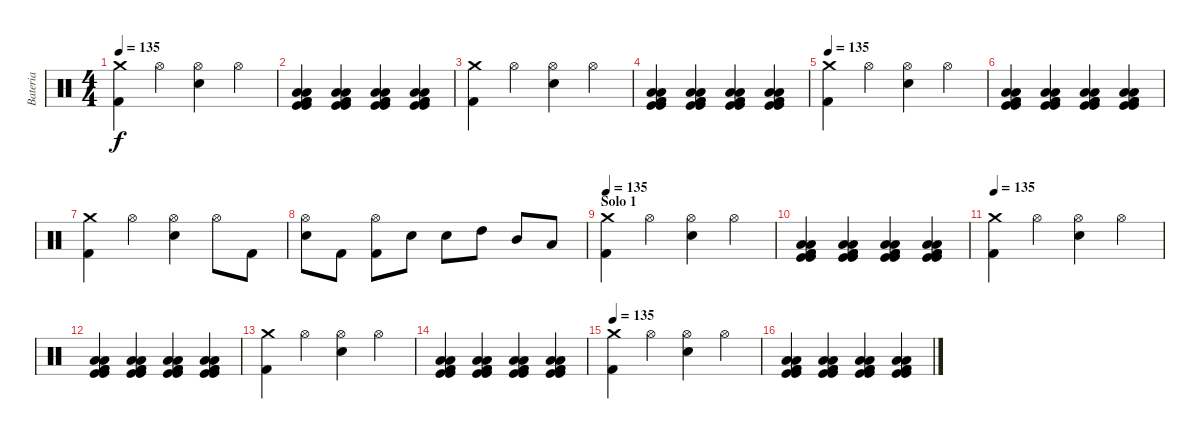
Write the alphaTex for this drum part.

\track ("Bateria" "Bateria") {instrument percussion}
\staff {score}
\articulation defaults
\ts (4 4)
\tempo 135
\clef neutral
\ks c
("Kick (hit) 2" "Crash medium (hit)").4{dy f} "Hi-Hat (open)".4 ("Hi-Hat (open)" "Snare (hit) 2").4 "Hi-Hat (open)".4 |
("Low Floor Tom (hit)" "Kick (hit)" "Kick (hit)" "Kick (hit) 2" "Kick (hit) 2" "Low Floor Tom (hit)").4 ("Low Floor Tom (hit)" "Kick (hit)" "Kick (hit)" "Kick (hit) 2" "Kick (hit) 2" "Low Floor Tom (hit)").4 ("Low Floor Tom (hit)" "Kick (hit)" "Kick (hit)" "Kick (hit) 2" "Kick (hit) 2" "Low Floor Tom (hit)").4 ("Low Floor Tom (hit)" "Kick (hit)" "Kick (hit)" "Kick (hit) 2" "Kick (hit) 2" "Low Floor Tom (hit)").4 |
("Kick (hit) 2" "Crash medium (hit)").4 "Hi-Hat (open)".4 ("Hi-Hat (open)" "Snare (hit) 2").4 "Hi-Hat (open)".4 |
("Low Floor Tom (hit)" "Kick (hit)" "Kick (hit)" "Kick (hit) 2" "Kick (hit) 2" "Low Floor Tom (hit)").4 ("Low Floor Tom (hit)" "Kick (hit)" "Kick (hit)" "Kick (hit) 2" "Kick (hit) 2" "Low Floor Tom (hit)").4 ("Low Floor Tom (hit)" "Kick (hit)" "Kick (hit)" "Kick (hit) 2" "Kick (hit) 2" "Low Floor Tom (hit)").4 ("Low Floor Tom (hit)" "Kick (hit)" "Kick (hit)" "Kick (hit) 2" "Kick (hit) 2" "Low Floor Tom (hit)").4 |
\tempo 135
("Kick (hit) 2" "Crash medium (hit)").4 "Hi-Hat (open)".4 ("Hi-Hat (open)" "Snare (hit) 2").4 "Hi-Hat (open)".4 |
("Low Floor Tom (hit)" "Kick (hit)" "Kick (hit)" "Kick (hit) 2" "Kick (hit) 2" "Low Floor Tom (hit)").4 ("Low Floor Tom (hit)" "Kick (hit)" "Kick (hit)" "Kick (hit) 2" "Kick (hit) 2" "Low Floor Tom (hit)").4 ("Low Floor Tom (hit)" "Kick (hit)" "Kick (hit)" "Kick (hit) 2" "Kick (hit) 2" "Low Floor Tom (hit)").4 ("Low Floor Tom (hit)" "Kick (hit)" "Kick (hit)" "Kick (hit) 2" "Kick (hit) 2" "Low Floor Tom (hit)").4 |
("Kick (hit) 2" "Crash medium (hit)").4 "Hi-Hat (open)".4 ("Hi-Hat (open)" "Snare (hit) 2").4 "Hi-Hat (open)".8 "Kick (hit) 2".8 |
("Hi-Hat (open)" "Snare (hit) 2").8 "Kick (hit) 2".8 ("Kick (hit) 2" "Hi-Hat (open)").8 "Snare (hit) 2".8 "Snare (hit) 2".8 "High Tom (hit)".8 "Mid Tom (hit)".8 "Low Tom (hit)".8 |
\section ("" "Solo 1")
\tempo 135
("Kick (hit) 2" "Crash medium (hit)").4 "Hi-Hat (open)".4 ("Hi-Hat (open)" "Snare (hit) 2").4 "Hi-Hat (open)".4 |
("Low Floor Tom (hit)" "Kick (hit)" "Kick (hit)" "Kick (hit) 2" "Kick (hit) 2" "Low Floor Tom (hit)").4 ("Low Floor Tom (hit)" "Kick (hit)" "Kick (hit)" "Kick (hit) 2" "Kick (hit) 2" "Low Floor Tom (hit)").4 ("Low Floor Tom (hit)" "Kick (hit)" "Kick (hit)" "Kick (hit) 2" "Kick (hit) 2" "Low Floor Tom (hit)").4 ("Low Floor Tom (hit)" "Kick (hit)" "Kick (hit)" "Kick (hit) 2" "Kick (hit) 2" "Low Floor Tom (hit)").4 |
\tempo 135
("Kick (hit) 2" "Crash medium (hit)").4 "Hi-Hat (open)".4 ("Hi-Hat (open)" "Snare (hit) 2").4 "Hi-Hat (open)".4 |
("Low Floor Tom (hit)" "Kick (hit)" "Kick (hit)" "Kick (hit) 2" "Kick (hit) 2" "Low Floor Tom (hit)").4 ("Low Floor Tom (hit)" "Kick (hit)" "Kick (hit)" "Kick (hit) 2" "Kick (hit) 2" "Low Floor Tom (hit)").4 ("Low Floor Tom (hit)" "Kick (hit)" "Kick (hit)" "Kick (hit) 2" "Kick (hit) 2" "Low Floor Tom (hit)").4 ("Low Floor Tom (hit)" "Kick (hit)" "Kick (hit)" "Kick (hit) 2" "Kick (hit) 2" "Low Floor Tom (hit)").4 |
("Kick (hit) 2" "Crash medium (hit)").4 "Hi-Hat (open)".4 ("Hi-Hat (open)" "Snare (hit) 2").4 "Hi-Hat (open)".4 |
("Low Floor Tom (hit)" "Kick (hit)" "Kick (hit)" "Kick (hit) 2" "Kick (hit) 2" "Low Floor Tom (hit)").4 ("Low Floor Tom (hit)" "Kick (hit)" "Kick (hit)" "Kick (hit) 2" "Kick (hit) 2" "Low Floor Tom (hit)").4 ("Low Floor Tom (hit)" "Kick (hit)" "Kick (hit)" "Kick (hit) 2" "Kick (hit) 2" "Low Floor Tom (hit)").4 ("Low Floor Tom (hit)" "Kick (hit)" "Kick (hit)" "Kick (hit) 2" "Kick (hit) 2" "Low Floor Tom (hit)").4 |
\tempo 135
("Kick (hit) 2" "Crash medium (hit)").4 "Hi-Hat (open)".4 ("Hi-Hat (open)" "Snare (hit) 2").4 "Hi-Hat (open)".4 |
("Low Floor Tom (hit)" "Kick (hit)" "Kick (hit)" "Kick (hit) 2" "Kick (hit) 2" "Low Floor Tom (hit)").4 ("Low Floor Tom (hit)" "Kick (hit)" "Kick (hit)" "Kick (hit) 2" "Kick (hit) 2" "Low Floor Tom (hit)").4 ("Low Floor Tom (hit)" "Kick (hit)" "Kick (hit)" "Kick (hit) 2" "Kick (hit) 2" "Low Floor Tom (hit)").4 ("Low Floor Tom (hit)" "Kick (hit)" "Kick (hit)" "Kick (hit) 2" "Kick (hit) 2" "Low Floor Tom (hit)").4
